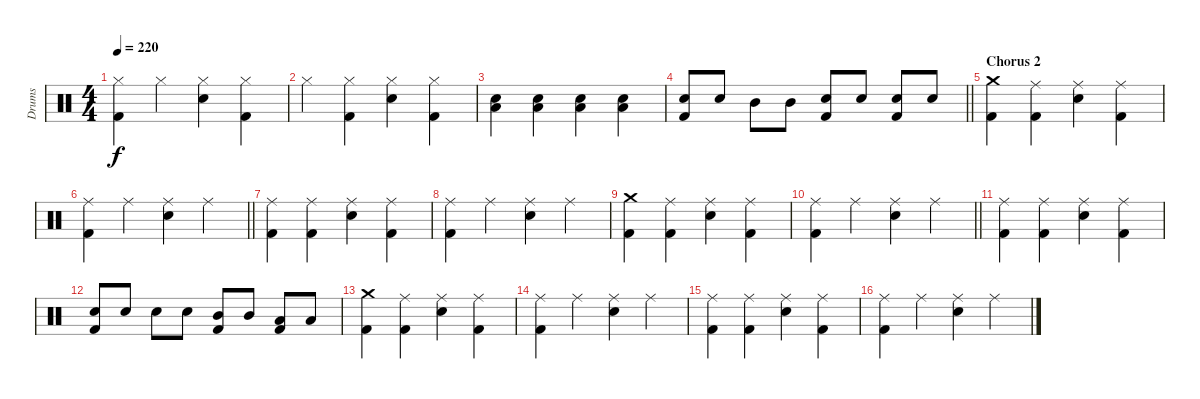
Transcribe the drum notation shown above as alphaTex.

\track ("Drums" "Drums") {instrument percussion}
\staff {score}
\articulation defaults
\ts (4 4)
\tempo 220
\clef neutral
\ks c
("Hi-Hat (closed)" "Kick (hit) 2").4{dy f} "Hi-Hat (closed)".4 ("Hi-Hat (closed)" "Electric Snare (hit)").4 ("Hi-Hat (closed)" "Kick (hit) 2").4 |
"Hi-Hat (closed)".4 ("Hi-Hat (closed)" "Kick (hit) 2").4 ("Hi-Hat (closed)" "Electric Snare (hit)").4 ("Hi-Hat (closed)" "Kick (hit) 2").4 |
("Low Tom (hit)" "Electric Snare (hit)").4 ("Low Tom (hit)" "Electric Snare (hit)").4 ("Low Tom (hit)" "Electric Snare (hit)").4 ("Low Tom (hit)" "Electric Snare (hit)").4 |
\barLineRight lightlight
("Electric Snare (hit)" "Kick (hit) 2").8 "Electric Snare (hit)".8 "Mid Tom (hit)".8 "Mid Tom (hit)".8 ("Electric Snare (hit)" "Kick (hit) 2").8 "Electric Snare (hit)".8 ("Electric Snare (hit)" "Kick (hit) 2").8 "Electric Snare (hit)".8 |
\section ("" "Chorus 2")
("Crash medium (hit)" "Kick (hit) 2").4 ("Ride (middle)" "Kick (hit) 2").4 ("Ride (middle)" "Electric Snare (hit)").4 ("Ride (middle)" "Kick (hit) 2").4 |
\barLineRight lightlight
("Ride (middle)" "Kick (hit) 2").4 "Ride (middle)".4 ("Ride (middle)" "Electric Snare (hit)").4 "Ride (middle)".4 |
("Ride (middle)" "Kick (hit) 2").4 ("Ride (middle)" "Kick (hit) 2").4 ("Ride (middle)" "Electric Snare (hit)").4 ("Ride (middle)" "Kick (hit) 2").4 |
("Ride (middle)" "Kick (hit) 2").4 "Ride (middle)".4 ("Ride (middle)" "Electric Snare (hit)").4 "Ride (middle)".4 |
("Crash medium (hit)" "Kick (hit) 2").4 ("Ride (middle)" "Kick (hit) 2").4 ("Ride (middle)" "Electric Snare (hit)").4 ("Ride (middle)" "Kick (hit) 2").4 |
\barLineRight lightlight
("Ride (middle)" "Kick (hit) 2").4 "Ride (middle)".4 ("Ride (middle)" "Electric Snare (hit)").4 "Ride (middle)".4 |
("Ride (middle)" "Kick (hit) 2").4 ("Ride (middle)" "Kick (hit) 2").4 ("Ride (middle)" "Electric Snare (hit)").4 ("Ride (middle)" "Kick (hit) 2").4 |
("Electric Snare (hit)" "Kick (hit) 2").8 "Electric Snare (hit)".8 "Electric Snare (hit)".8 "Electric Snare (hit)".8 ("Mid Tom (hit)" "Kick (hit) 2").8 "Mid Tom (hit)".8 ("Low Tom (hit)" "Kick (hit) 2").8 "Low Tom (hit)".8 |
("Crash medium (hit)" "Kick (hit) 2").4 ("Ride (middle)" "Kick (hit) 2").4 ("Ride (middle)" "Electric Snare (hit)").4 ("Ride (middle)" "Kick (hit) 2").4 |
("Ride (middle)" "Kick (hit) 2").4 "Ride (middle)".4 ("Ride (middle)" "Electric Snare (hit)").4 "Ride (middle)".4 |
("Ride (middle)" "Kick (hit) 2").4 ("Ride (middle)" "Kick (hit) 2").4 ("Ride (middle)" "Electric Snare (hit)").4 ("Ride (middle)" "Kick (hit) 2").4 |
("Ride (middle)" "Kick (hit) 2").4 "Ride (middle)".4 ("Ride (middle)" "Electric Snare (hit)").4 "Ride (middle)".4
